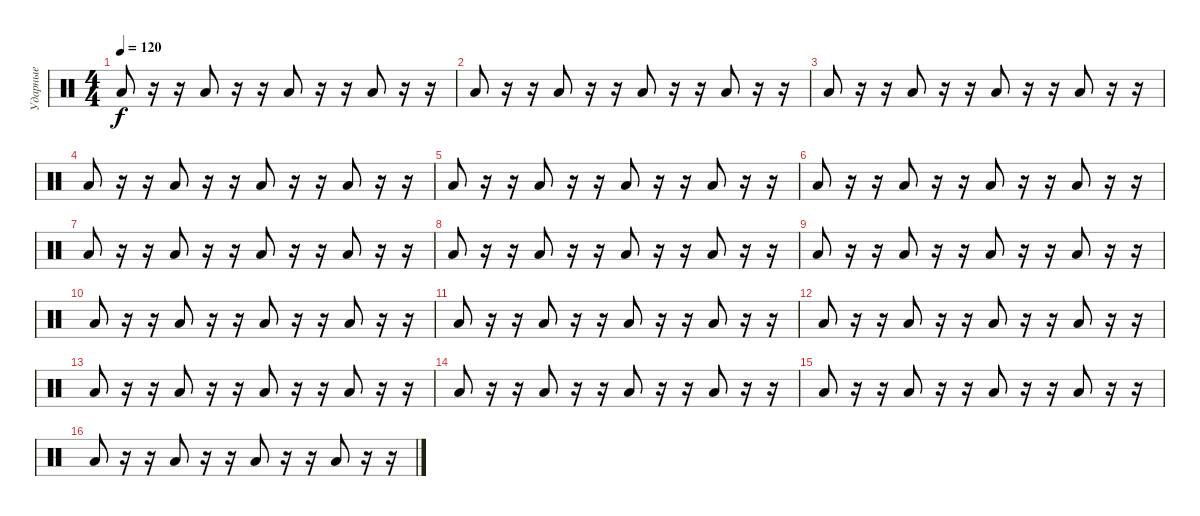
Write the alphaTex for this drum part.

\track ("Ударные" "Ударные") {instrument percussion}
\staff {score}
\articulation defaults
\ts (4 4)
\tempo 120
\clef neutral
\ks c "Low Floor Tom (hit)".8{dy f}
r.16 r.16 "Low Floor Tom (hit)".8 r.16 r.16 "Low Floor Tom (hit)".8 r.16 r.16 "Low Floor Tom (hit)".8 r.16 r.16 |
"Low Floor Tom (hit)".8 r.16 r.16 "Low Floor Tom (hit)".8 r.16 r.16 "Low Floor Tom (hit)".8 r.16 r.16 "Low Floor Tom (hit)".8 r.16 r.16 |
"Low Floor Tom (hit)".8 r.16 r.16 "Low Floor Tom (hit)".8 r.16 r.16 "Low Floor Tom (hit)".8 r.16 r.16 "Low Floor Tom (hit)".8 r.16 r.16 |
"Low Floor Tom (hit)".8 r.16 r.16 "Low Floor Tom (hit)".8 r.16 r.16 "Low Floor Tom (hit)".8 r.16 r.16 "Low Floor Tom (hit)".8 r.16 r.16 |
"Low Floor Tom (hit)".8 r.16 r.16 "Low Floor Tom (hit)".8 r.16 r.16 "Low Floor Tom (hit)".8 r.16 r.16 "Low Floor Tom (hit)".8 r.16 r.16 |
"Low Floor Tom (hit)".8 r.16 r.16 "Low Floor Tom (hit)".8 r.16 r.16 "Low Floor Tom (hit)".8 r.16 r.16 "Low Floor Tom (hit)".8 r.16 r.16 |
"Low Floor Tom (hit)".8 r.16 r.16 "Low Floor Tom (hit)".8 r.16 r.16 "Low Floor Tom (hit)".8 r.16 r.16 "Low Floor Tom (hit)".8 r.16 r.16 |
"Low Floor Tom (hit)".8 r.16 r.16 "Low Floor Tom (hit)".8 r.16 r.16 "Low Floor Tom (hit)".8 r.16 r.16 "Low Floor Tom (hit)".8 r.16 r.16 |
"Low Floor Tom (hit)".8 r.16 r.16 "Low Floor Tom (hit)".8 r.16 r.16 "Low Floor Tom (hit)".8 r.16 r.16 "Low Floor Tom (hit)".8 r.16 r.16 |
"Low Floor Tom (hit)".8 r.16 r.16 "Low Floor Tom (hit)".8 r.16 r.16 "Low Floor Tom (hit)".8 r.16 r.16 "Low Floor Tom (hit)".8 r.16 r.16 |
"Low Floor Tom (hit)".8 r.16 r.16 "Low Floor Tom (hit)".8 r.16 r.16 "Low Floor Tom (hit)".8 r.16 r.16 "Low Floor Tom (hit)".8 r.16 r.16 |
"Low Floor Tom (hit)".8 r.16 r.16 "Low Floor Tom (hit)".8 r.16 r.16 "Low Floor Tom (hit)".8 r.16 r.16 "Low Floor Tom (hit)".8 r.16 r.16 |
"Low Floor Tom (hit)".8 r.16 r.16 "Low Floor Tom (hit)".8 r.16 r.16 "Low Floor Tom (hit)".8 r.16 r.16 "Low Floor Tom (hit)".8 r.16 r.16 |
"Low Floor Tom (hit)".8 r.16 r.16 "Low Floor Tom (hit)".8 r.16 r.16 "Low Floor Tom (hit)".8 r.16 r.16 "Low Floor Tom (hit)".8 r.16 r.16 |
"Low Floor Tom (hit)".8 r.16 r.16 "Low Floor Tom (hit)".8 r.16 r.16 "Low Floor Tom (hit)".8 r.16 r.16 "Low Floor Tom (hit)".8 r.16 r.16 |
"Low Floor Tom (hit)".8 r.16 r.16 "Low Floor Tom (hit)".8 r.16 r.16 "Low Floor Tom (hit)".8 r.16 r.16 "Low Floor Tom (hit)".8 r.16 r.16
